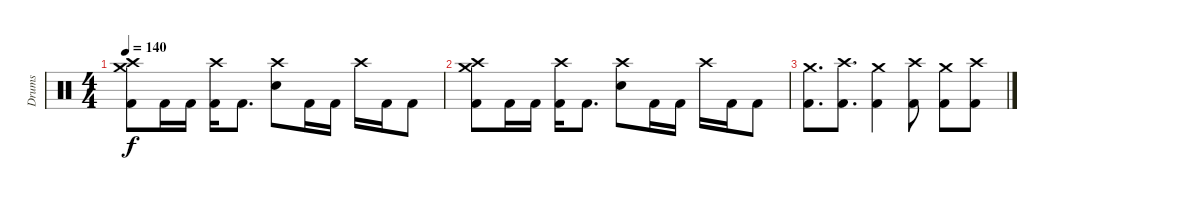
\track ("Drums" "Drums") {instrument percussion}
\staff {score}
\articulation defaults
\ts (4 4)
\tempo 140
\clef neutral
\ks c
("Crash medium (hit)" "Crash high (hit)" "Kick (hit) 2").8{dy f} "Kick (hit) 2".16 "Kick (hit) 2".16 ("Crash high (hit)" "Kick (hit) 2").16 "Kick (hit) 2".8{d} ("Crash high (hit)" "Electric Snare (hit)").8 "Kick (hit) 2".16 "Kick (hit) 2".16 "Crash high (hit)".16 "Kick (hit) 2".16 "Kick (hit) 2".8 |
("Crash medium (hit)" "Crash high (hit)" "Kick (hit) 2").8 "Kick (hit) 2".16 "Kick (hit) 2".16 ("Crash high (hit)" "Kick (hit) 2").16 "Kick (hit) 2".8{d} ("Crash high (hit)" "Electric Snare (hit)").8 "Kick (hit) 2".16 "Kick (hit) 2".16 "Crash high (hit)".16 "Kick (hit) 2".16 "Kick (hit) 2".8 |
("Crash medium (hit)" "Kick (hit) 2").8{d} ("Crash high (hit)" "Kick (hit) 2").8{d} ("Crash medium (hit)" "Kick (hit) 2").4 ("Crash high (hit)" "Kick (hit) 2").8 ("Crash medium (hit)" "Kick (hit) 2").8 ("Crash high (hit)" "Kick (hit) 2").8
